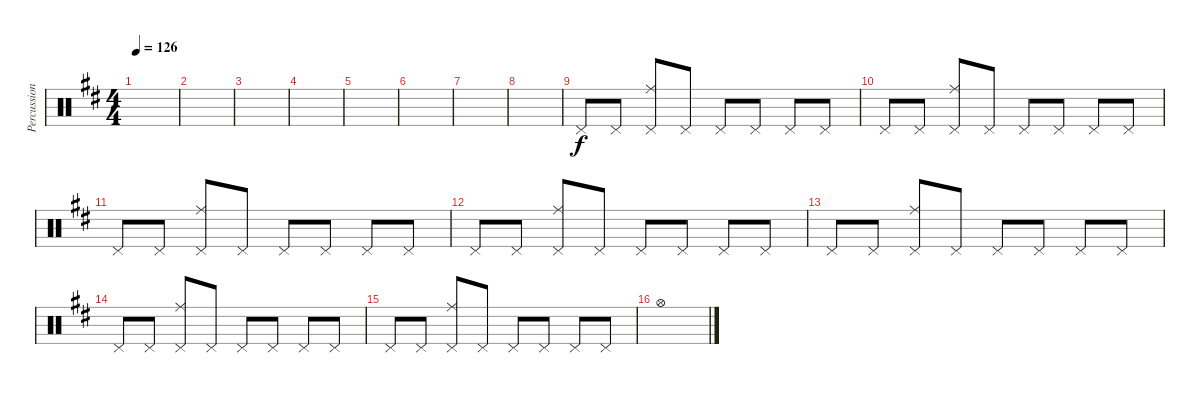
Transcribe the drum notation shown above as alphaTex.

\track ("Percussion" "Percussion") {instrument percussion}
\staff {score}
\articulation defaults
\ts (4 4)
\tempo 126
\clef neutral
\ks d
|
|
|
|
|
|
|
|
"Pedal Hi-Hat (hit)".8 "Pedal Hi-Hat (hit)".8 ("Pedal Hi-Hat (hit)" "Ride (middle)").8 "Pedal Hi-Hat (hit)".8 "Pedal Hi-Hat (hit)".8 "Pedal Hi-Hat (hit)".8 "Pedal Hi-Hat (hit)".8 "Pedal Hi-Hat (hit)".8 |
"Pedal Hi-Hat (hit)".8 "Pedal Hi-Hat (hit)".8 ("Pedal Hi-Hat (hit)" "Ride (middle)").8 "Pedal Hi-Hat (hit)".8 "Pedal Hi-Hat (hit)".8 "Pedal Hi-Hat (hit)".8 "Pedal Hi-Hat (hit)".8 "Pedal Hi-Hat (hit)".8 |
"Pedal Hi-Hat (hit)".8 "Pedal Hi-Hat (hit)".8 ("Pedal Hi-Hat (hit)" "Ride (middle)").8 "Pedal Hi-Hat (hit)".8 "Pedal Hi-Hat (hit)".8 "Pedal Hi-Hat (hit)".8 "Pedal Hi-Hat (hit)".8 "Pedal Hi-Hat (hit)".8 |
"Pedal Hi-Hat (hit)".8 "Pedal Hi-Hat (hit)".8 ("Pedal Hi-Hat (hit)" "Ride (middle)").8 "Pedal Hi-Hat (hit)".8 "Pedal Hi-Hat (hit)".8 "Pedal Hi-Hat (hit)".8 "Pedal Hi-Hat (hit)".8 "Pedal Hi-Hat (hit)".8 |
"Pedal Hi-Hat (hit)".8 "Pedal Hi-Hat (hit)".8 ("Pedal Hi-Hat (hit)" "Ride (middle)").8 "Pedal Hi-Hat (hit)".8 "Pedal Hi-Hat (hit)".8 "Pedal Hi-Hat (hit)".8 "Pedal Hi-Hat (hit)".8 "Pedal Hi-Hat (hit)".8 |
"Pedal Hi-Hat (hit)".8 "Pedal Hi-Hat (hit)".8 ("Pedal Hi-Hat (hit)" "Ride (middle)").8 "Pedal Hi-Hat (hit)".8 "Pedal Hi-Hat (hit)".8 "Pedal Hi-Hat (hit)".8 "Pedal Hi-Hat (hit)".8 "Pedal Hi-Hat (hit)".8 |
"Pedal Hi-Hat (hit)".8 "Pedal Hi-Hat (hit)".8 ("Pedal Hi-Hat (hit)" "Ride (middle)").8 "Pedal Hi-Hat (hit)".8 "Pedal Hi-Hat (hit)".8 "Pedal Hi-Hat (hit)".8 "Pedal Hi-Hat (hit)".8 "Pedal Hi-Hat (hit)".8 |
"Hi-Hat (open)".1
